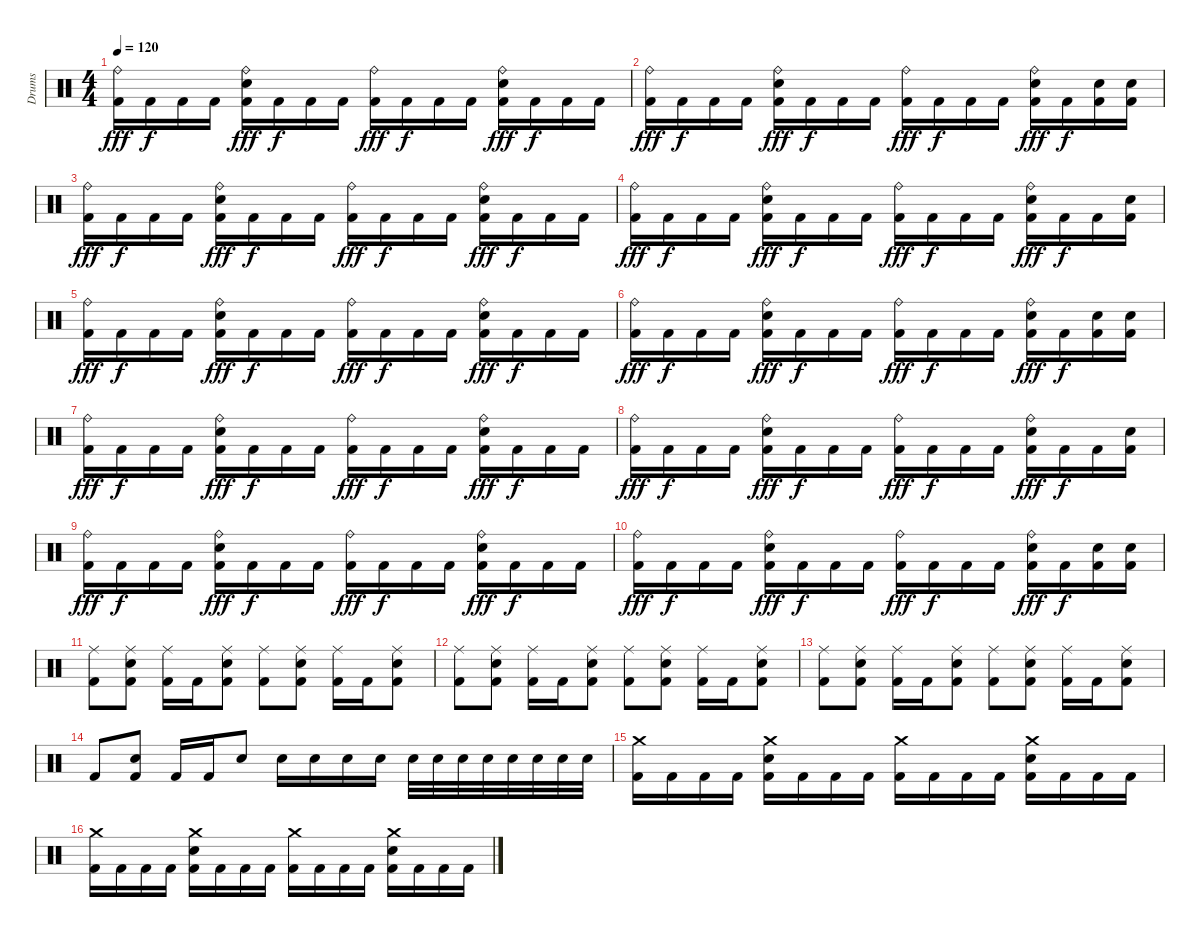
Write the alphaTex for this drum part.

\track ("Drums" "Drums") {instrument percussion}
\staff {score}
\articulation defaults
\ts (4 4)
\tempo 120
\clef neutral
\ks c
("Ride (bell)" "Kick (hit) 2").16{dy fff} "Kick (hit) 2".16{dy f} "Kick (hit) 2".16 "Kick (hit) 2".16 ("Ride (bell)" "Electric Snare (hit)" "Kick (hit) 2").16{dy fff} "Kick (hit) 2".16{dy f} "Kick (hit) 2".16 "Kick (hit) 2".16 ("Ride (bell)" "Kick (hit) 2").16{dy fff} "Kick (hit) 2".16{dy f} "Kick (hit) 2".16 "Kick (hit) 2".16 ("Ride (bell)" "Electric Snare (hit)" "Kick (hit) 2").16{dy fff} "Kick (hit) 2".16{dy f} "Kick (hit) 2".16 "Kick (hit) 2".16 |
("Ride (bell)" "Kick (hit) 2").16{dy fff} "Kick (hit) 2".16{dy f} "Kick (hit) 2".16 "Kick (hit) 2".16 ("Ride (bell)" "Electric Snare (hit)" "Kick (hit) 2").16{dy fff} "Kick (hit) 2".16{dy f} "Kick (hit) 2".16 "Kick (hit) 2".16 ("Ride (bell)" "Kick (hit) 2").16{dy fff} "Kick (hit) 2".16{dy f} "Kick (hit) 2".16 "Kick (hit) 2".16 ("Ride (bell)" "Electric Snare (hit)" "Kick (hit) 2").16{dy fff} "Kick (hit) 2".16{dy f} ("Electric Snare (hit)" "Kick (hit) 2").16 ("Electric Snare (hit)" "Kick (hit) 2").16 |
("Ride (bell)" "Kick (hit) 2").16{dy fff} "Kick (hit) 2".16{dy f} "Kick (hit) 2".16 "Kick (hit) 2".16 ("Ride (bell)" "Electric Snare (hit)" "Kick (hit) 2").16{dy fff} "Kick (hit) 2".16{dy f} "Kick (hit) 2".16 "Kick (hit) 2".16 ("Ride (bell)" "Kick (hit) 2").16{dy fff} "Kick (hit) 2".16{dy f} "Kick (hit) 2".16 "Kick (hit) 2".16 ("Ride (bell)" "Electric Snare (hit)" "Kick (hit) 2").16{dy fff} "Kick (hit) 2".16{dy f} "Kick (hit) 2".16 "Kick (hit) 2".16 |
("Ride (bell)" "Kick (hit) 2").16{dy fff} "Kick (hit) 2".16{dy f} "Kick (hit) 2".16 "Kick (hit) 2".16 ("Ride (bell)" "Electric Snare (hit)" "Kick (hit) 2").16{dy fff} "Kick (hit) 2".16{dy f} "Kick (hit) 2".16 "Kick (hit) 2".16 ("Ride (bell)" "Kick (hit) 2").16{dy fff} "Kick (hit) 2".16{dy f} "Kick (hit) 2".16 "Kick (hit) 2".16 ("Ride (bell)" "Electric Snare (hit)" "Kick (hit) 2").16{dy fff} "Kick (hit) 2".16{dy f} "Kick (hit) 2".16 ("Electric Snare (hit)" "Kick (hit) 2").16 |
("Ride (bell)" "Kick (hit) 2").16{dy fff} "Kick (hit) 2".16{dy f} "Kick (hit) 2".16 "Kick (hit) 2".16 ("Ride (bell)" "Electric Snare (hit)" "Kick (hit) 2").16{dy fff} "Kick (hit) 2".16{dy f} "Kick (hit) 2".16 "Kick (hit) 2".16 ("Ride (bell)" "Kick (hit) 2").16{dy fff} "Kick (hit) 2".16{dy f} "Kick (hit) 2".16 "Kick (hit) 2".16 ("Ride (bell)" "Electric Snare (hit)" "Kick (hit) 2").16{dy fff} "Kick (hit) 2".16{dy f} "Kick (hit) 2".16 "Kick (hit) 2".16 |
("Ride (bell)" "Kick (hit) 2").16{dy fff} "Kick (hit) 2".16{dy f} "Kick (hit) 2".16 "Kick (hit) 2".16 ("Ride (bell)" "Electric Snare (hit)" "Kick (hit) 2").16{dy fff} "Kick (hit) 2".16{dy f} "Kick (hit) 2".16 "Kick (hit) 2".16 ("Ride (bell)" "Kick (hit) 2").16{dy fff} "Kick (hit) 2".16{dy f} "Kick (hit) 2".16 "Kick (hit) 2".16 ("Ride (bell)" "Electric Snare (hit)" "Kick (hit) 2").16{dy fff} "Kick (hit) 2".16{dy f} ("Electric Snare (hit)" "Kick (hit) 2").16 ("Electric Snare (hit)" "Kick (hit) 2").16 |
("Ride (bell)" "Kick (hit) 2").16{dy fff} "Kick (hit) 2".16{dy f} "Kick (hit) 2".16 "Kick (hit) 2".16 ("Ride (bell)" "Electric Snare (hit)" "Kick (hit) 2").16{dy fff} "Kick (hit) 2".16{dy f} "Kick (hit) 2".16 "Kick (hit) 2".16 ("Ride (bell)" "Kick (hit) 2").16{dy fff} "Kick (hit) 2".16{dy f} "Kick (hit) 2".16 "Kick (hit) 2".16 ("Ride (bell)" "Electric Snare (hit)" "Kick (hit) 2").16{dy fff} "Kick (hit) 2".16{dy f} "Kick (hit) 2".16 "Kick (hit) 2".16 |
("Ride (bell)" "Kick (hit) 2").16{dy fff} "Kick (hit) 2".16{dy f} "Kick (hit) 2".16 "Kick (hit) 2".16 ("Ride (bell)" "Electric Snare (hit)" "Kick (hit) 2").16{dy fff} "Kick (hit) 2".16{dy f} "Kick (hit) 2".16 "Kick (hit) 2".16 ("Ride (bell)" "Kick (hit) 2").16{dy fff} "Kick (hit) 2".16{dy f} "Kick (hit) 2".16 "Kick (hit) 2".16 ("Ride (bell)" "Electric Snare (hit)" "Kick (hit) 2").16{dy fff} "Kick (hit) 2".16{dy f} "Kick (hit) 2".16 ("Electric Snare (hit)" "Kick (hit) 2").16 |
("Ride (bell)" "Kick (hit) 2").16{dy fff} "Kick (hit) 2".16{dy f} "Kick (hit) 2".16 "Kick (hit) 2".16 ("Ride (bell)" "Electric Snare (hit)" "Kick (hit) 2").16{dy fff} "Kick (hit) 2".16{dy f} "Kick (hit) 2".16 "Kick (hit) 2".16 ("Ride (bell)" "Kick (hit) 2").16{dy fff} "Kick (hit) 2".16{dy f} "Kick (hit) 2".16 "Kick (hit) 2".16 ("Ride (bell)" "Electric Snare (hit)" "Kick (hit) 2").16{dy fff} "Kick (hit) 2".16{dy f} "Kick (hit) 2".16 "Kick (hit) 2".16 |
("Ride (bell)" "Kick (hit) 2").16{dy fff} "Kick (hit) 2".16{dy f} "Kick (hit) 2".16 "Kick (hit) 2".16 ("Ride (bell)" "Electric Snare (hit)" "Kick (hit) 2").16{dy fff} "Kick (hit) 2".16{dy f} "Kick (hit) 2".16 "Kick (hit) 2".16 ("Ride (bell)" "Kick (hit) 2").16{dy fff} "Kick (hit) 2".16{dy f} "Kick (hit) 2".16 "Kick (hit) 2".16 ("Ride (bell)" "Electric Snare (hit)" "Kick (hit) 2").16{dy fff} "Kick (hit) 2".16{dy f} ("Electric Snare (hit)" "Kick (hit) 2").16 ("Electric Snare (hit)" "Kick (hit) 2").16 |
("Ride (middle)" "Kick (hit) 2").8 ("Ride (middle)" "Electric Snare (hit)" "Kick (hit) 2").8 ("Ride (middle)" "Kick (hit) 2").16 "Kick (hit) 2".16 ("Ride (middle)" "Electric Snare (hit)" "Kick (hit) 2").8 ("Ride (middle)" "Kick (hit) 2").8 ("Ride (middle)" "Electric Snare (hit)" "Kick (hit) 2").8 ("Ride (middle)" "Kick (hit) 2").16 "Kick (hit) 2".16 ("Ride (middle)" "Electric Snare (hit)" "Kick (hit) 2").8 |
("Ride (middle)" "Kick (hit) 2").8 ("Ride (middle)" "Electric Snare (hit)" "Kick (hit) 2").8 ("Ride (middle)" "Kick (hit) 2").16 "Kick (hit) 2".16 ("Ride (middle)" "Electric Snare (hit)" "Kick (hit) 2").8 ("Ride (middle)" "Kick (hit) 2").8 ("Ride (middle)" "Electric Snare (hit)" "Kick (hit) 2").8 ("Ride (middle)" "Kick (hit) 2").16 "Kick (hit) 2".16 ("Ride (middle)" "Electric Snare (hit)" "Kick (hit) 2").8 |
("Ride (middle)" "Kick (hit) 2").8 ("Ride (middle)" "Electric Snare (hit)" "Kick (hit) 2").8 ("Ride (middle)" "Kick (hit) 2").16 "Kick (hit) 2".16 ("Ride (middle)" "Electric Snare (hit)" "Kick (hit) 2").8 ("Ride (middle)" "Kick (hit) 2").8 ("Ride (middle)" "Electric Snare (hit)" "Kick (hit) 2").8 ("Ride (middle)" "Kick (hit) 2").16 "Kick (hit) 2".16 ("Ride (middle)" "Electric Snare (hit)" "Kick (hit) 2").8 |
"Kick (hit) 2".8 ("Electric Snare (hit)" "Kick (hit) 2").8 "Kick (hit) 2".16 "Kick (hit) 2".16 "Electric Snare (hit)".8 "Electric Snare (hit)".16 "Electric Snare (hit)".16 "Electric Snare (hit)".16 "Electric Snare (hit)".16 "Electric Snare (hit)".32 "Electric Snare (hit)".32 "Electric Snare (hit)".32 "Electric Snare (hit)".32 "Electric Snare (hit)".32 "Electric Snare (hit)".32 "Electric Snare (hit)".32 "Electric Snare (hit)".32 |
("Crash medium (hit)" "Kick (hit) 2").16 "Kick (hit) 2".16 "Kick (hit) 2".16 "Kick (hit) 2".16 ("Crash medium (hit)" "Electric Snare (hit)" "Kick (hit) 2").16 "Kick (hit) 2".16 "Kick (hit) 2".16 "Kick (hit) 2".16 ("Crash medium (hit)" "Kick (hit) 2").16 "Kick (hit) 2".16 "Kick (hit) 2".16 "Kick (hit) 2".16 ("Crash medium (hit)" "Electric Snare (hit)" "Kick (hit) 2").16 "Kick (hit) 2".16 "Kick (hit) 2".16 "Kick (hit) 2".16 |
("Crash medium (hit)" "Kick (hit) 2").16 "Kick (hit) 2".16 "Kick (hit) 2".16 "Kick (hit) 2".16 ("Crash medium (hit)" "Electric Snare (hit)" "Kick (hit) 2").16 "Kick (hit) 2".16 "Kick (hit) 2".16 "Kick (hit) 2".16 ("Crash medium (hit)" "Kick (hit) 2").16 "Kick (hit) 2".16 "Kick (hit) 2".16 "Kick (hit) 2".16 ("Crash medium (hit)" "Electric Snare (hit)" "Kick (hit) 2").16 "Kick (hit) 2".16 "Kick (hit) 2".16 "Kick (hit) 2".16
